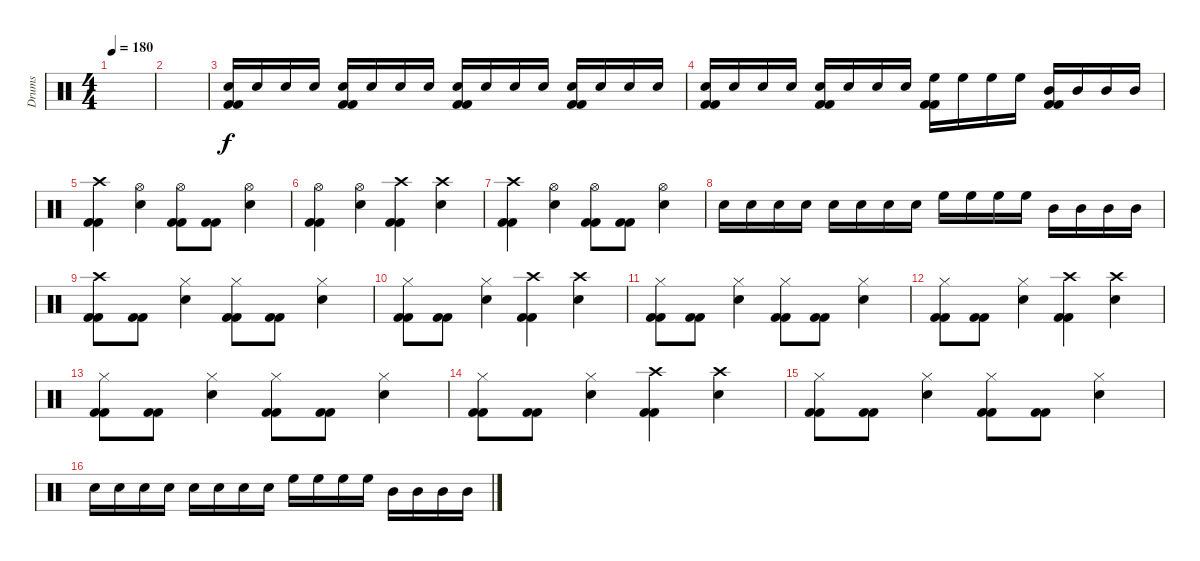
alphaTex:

\track ("Drums" "Drums") {instrument percussion}
\staff {score}
\articulation defaults
\ts (4 4)
\tempo 180
\clef neutral
\ks c
|
|
("Snare (hit) 2" "Kick (hit) 2" "Kick (hit) 2").16 "Snare (hit) 2".16 "Snare (hit) 2".16 "Snare (hit) 2".16 ("Snare (hit) 2" "Kick (hit) 2" "Kick (hit) 2").16 "Snare (hit) 2".16 "Snare (hit) 2".16 "Snare (hit) 2".16 ("Snare (hit) 2" "Kick (hit) 2" "Kick (hit) 2").16 "Snare (hit) 2".16 "Snare (hit) 2".16 "Snare (hit) 2".16 ("Snare (hit) 2" "Kick (hit) 2" "Kick (hit) 2").16 "Snare (hit) 2".16 "Snare (hit) 2".16 "Snare (hit) 2".16 |
("Snare (hit) 2" "Kick (hit) 2" "Kick (hit) 2").16 "Snare (hit) 2".16 "Snare (hit) 2".16 "Snare (hit) 2".16 ("Snare (hit) 2" "Kick (hit) 2" "Kick (hit) 2").16 "Snare (hit) 2".16 "Snare (hit) 2".16 "Snare (hit) 2".16 ("High Floor Tom (hit)" "Kick (hit) 2" "Kick (hit) 2").16 "High Floor Tom (hit)".16 "High Floor Tom (hit)".16 "High Floor Tom (hit)".16 ("Mid Tom (hit)" "Kick (hit) 2" "Kick (hit) 2").16 "Mid Tom (hit)".16 "Mid Tom (hit)".16 "Mid Tom (hit)".16 |
("Crash high (hit)" "Kick (hit) 2" "Kick (hit) 2").4 ("Hi-Hat (open)" "Snare (hit) 2").4 ("Hi-Hat (open)" "Kick (hit) 2" "Kick (hit) 2").8 ("Kick (hit) 2" "Kick (hit) 2").8 ("Hi-Hat (open)" "Snare (hit) 2").4 |
("Hi-Hat (open)" "Kick (hit) 2" "Kick (hit) 2").4 ("Hi-Hat (open)" "Snare (hit) 2").4 ("Crash high (hit)" "Kick (hit) 2" "Kick (hit) 2").4 ("Crash high (hit)" "Snare (hit) 2").4 |
("Crash high (hit)" "Kick (hit) 2" "Kick (hit) 2").4 ("Hi-Hat (open)" "Snare (hit) 2").4 ("Hi-Hat (open)" "Kick (hit) 2" "Kick (hit) 2").8 ("Kick (hit) 2" "Kick (hit) 2").8 ("Hi-Hat (open)" "Snare (hit) 2").4 |
"Snare (hit) 2".16 "Snare (hit) 2".16 "Snare (hit) 2".16 "Snare (hit) 2".16 "Snare (hit) 2".16 "Snare (hit) 2".16 "Snare (hit) 2".16 "Snare (hit) 2".16 "High Floor Tom (hit)".16 "High Floor Tom (hit)".16 "High Floor Tom (hit)".16 "High Floor Tom (hit)".16 "Mid Tom (hit)".16 "Mid Tom (hit)".16 "Mid Tom (hit)".16 "Mid Tom (hit)".16 |
("Crash high (hit)" "Kick (hit) 2" "Kick (hit) 2").8 ("Kick (hit) 2" "Kick (hit) 2").8 ("Hi-Hat (closed)" "Snare (hit) 2").4 ("Hi-Hat (closed)" "Kick (hit) 2" "Kick (hit) 2").8 ("Kick (hit) 2" "Kick (hit) 2").8 ("Hi-Hat (closed)" "Snare (hit) 2").4 |
("Hi-Hat (closed)" "Kick (hit) 2" "Kick (hit) 2").8 ("Kick (hit) 2" "Kick (hit) 2").8 ("Hi-Hat (closed)" "Snare (hit) 2").4 ("Crash high (hit)" "Kick (hit) 2" "Kick (hit) 2").4 ("Crash high (hit)" "Snare (hit) 2").4 |
("Hi-Hat (closed)" "Kick (hit) 2" "Kick (hit) 2").8 ("Kick (hit) 2" "Kick (hit) 2").8 ("Hi-Hat (closed)" "Snare (hit) 2").4 ("Hi-Hat (closed)" "Kick (hit) 2" "Kick (hit) 2").8 ("Kick (hit) 2" "Kick (hit) 2").8 ("Hi-Hat (closed)" "Snare (hit) 2").4 |
("Hi-Hat (closed)" "Kick (hit) 2" "Kick (hit) 2").8 ("Kick (hit) 2" "Kick (hit) 2").8 ("Hi-Hat (closed)" "Snare (hit) 2").4 ("Crash high (hit)" "Kick (hit) 2" "Kick (hit) 2").4 ("Crash high (hit)" "Snare (hit) 2").4 |
("Hi-Hat (closed)" "Kick (hit) 2" "Kick (hit) 2").8 ("Kick (hit) 2" "Kick (hit) 2").8 ("Hi-Hat (closed)" "Snare (hit) 2").4 ("Hi-Hat (closed)" "Kick (hit) 2" "Kick (hit) 2").8 ("Kick (hit) 2" "Kick (hit) 2").8 ("Hi-Hat (closed)" "Snare (hit) 2").4 |
("Hi-Hat (closed)" "Kick (hit) 2" "Kick (hit) 2").8 ("Kick (hit) 2" "Kick (hit) 2").8 ("Hi-Hat (closed)" "Snare (hit) 2").4 ("Crash high (hit)" "Kick (hit) 2" "Kick (hit) 2").4 ("Crash high (hit)" "Snare (hit) 2").4 |
("Hi-Hat (closed)" "Kick (hit) 2" "Kick (hit) 2").8 ("Kick (hit) 2" "Kick (hit) 2").8 ("Hi-Hat (closed)" "Snare (hit) 2").4 ("Hi-Hat (closed)" "Kick (hit) 2" "Kick (hit) 2").8 ("Kick (hit) 2" "Kick (hit) 2").8 ("Hi-Hat (closed)" "Snare (hit) 2").4 |
"Snare (hit) 2".16 "Snare (hit) 2".16 "Snare (hit) 2".16 "Snare (hit) 2".16 "Snare (hit) 2".16 "Snare (hit) 2".16 "Snare (hit) 2".16 "Snare (hit) 2".16 "High Floor Tom (hit)".16 "High Floor Tom (hit)".16 "High Floor Tom (hit)".16 "High Floor Tom (hit)".16 "Mid Tom (hit)".16 "Mid Tom (hit)".16 "Mid Tom (hit)".16 "Mid Tom (hit)".16
